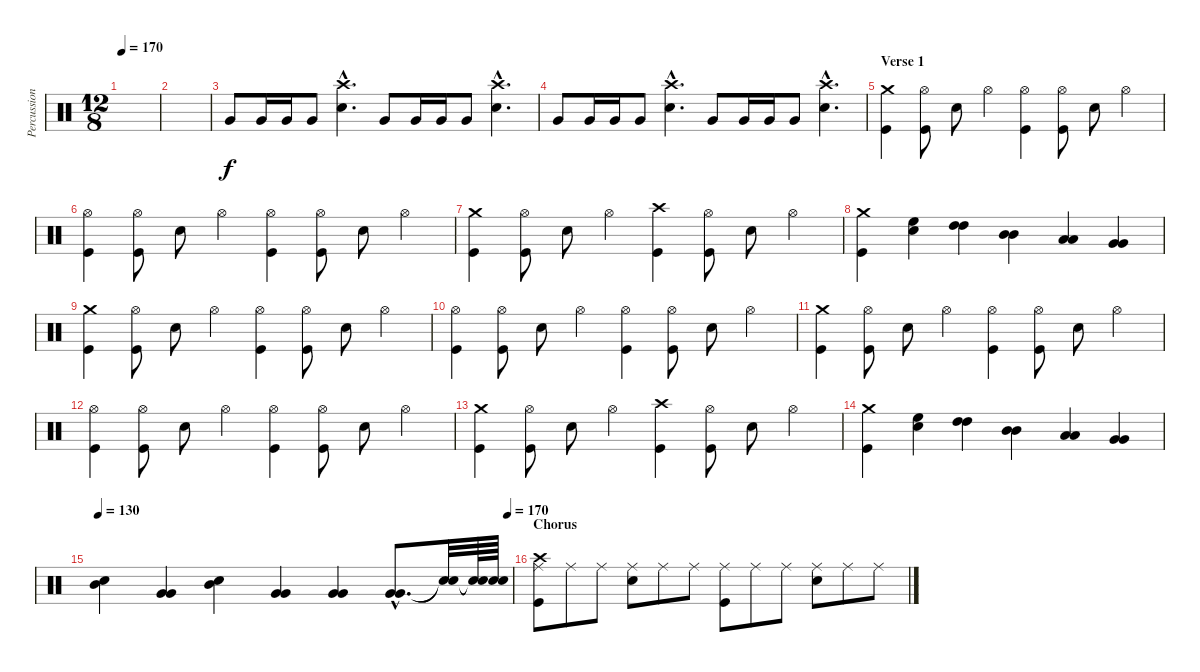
\track ("Percussion" "Percussion") {instrument percussion}
\staff {score}
\articulation defaults
\ts (12 8)
\tempo 170
\clef neutral
\ks c
|
|
"Very Low Tom (hit)".8 "Very Low Tom (hit)".16 "Very Low Tom (hit)".16 "Very Low Tom (hit)".8 ("Crash high (hit)"{hac} "Snare (hit) 2"{hac}).4{d} "Very Low Tom (hit)".8 "Very Low Tom (hit)".16 "Very Low Tom (hit)".16 "Very Low Tom (hit)".8 ("Crash high (hit)"{hac} "Snare (hit) 2"{hac}).4{d} |
"Very Low Tom (hit)".8 "Very Low Tom (hit)".16 "Very Low Tom (hit)".16 "Very Low Tom (hit)".8 ("Crash high (hit)"{hac} "Snare (hit) 2"{hac}).4{d} "Very Low Tom (hit)".8 "Very Low Tom (hit)".16 "Very Low Tom (hit)".16 "Very Low Tom (hit)".8 ("Crash high (hit)"{hac} "Snare (hit) 2"{hac}).4{d} |
\section ("" "Verse 1")
("Crash medium (hit)" "Kick (hit)").4 ("Hi-Hat (open)" "Kick (hit)").8 "Snare (hit) 2".8 "Hi-Hat (open)".4 ("Hi-Hat (open)" "Kick (hit)").4 ("Hi-Hat (open)" "Kick (hit)").8 "Snare (hit) 2".8 "Hi-Hat (open)".4 |
("Hi-Hat (open)" "Kick (hit)").4 ("Hi-Hat (open)" "Kick (hit)").8 "Snare (hit) 2".8 "Hi-Hat (open)".4 ("Hi-Hat (open)" "Kick (hit)").4 ("Hi-Hat (open)" "Kick (hit)").8 "Snare (hit) 2".8 "Hi-Hat (open)".4 |
("Crash medium (hit)" "Kick (hit)").4 ("Hi-Hat (open)" "Kick (hit)").8 "Snare (hit) 2".8 "Hi-Hat (open)".4 ("Crash high (hit)" "Kick (hit)").4 ("Hi-Hat (open)" "Kick (hit)").8 "Snare (hit) 2".8 "Hi-Hat (open)".4 |
("Crash medium (hit)" "Kick (hit)").4 ("Snare (hit) 2" "High Floor Tom (hit)").4 ("High Tom (hit)" "High Tom (hit)").4 ("Mid Tom (hit)" "Mid Tom (hit)").4 ("Low Tom (hit)" "Low Tom (hit)").4 ("Very Low Tom (hit)" "Very Low Tom (hit)").4 |
("Crash medium (hit)" "Kick (hit)").4 ("Hi-Hat (open)" "Kick (hit)").8 "Snare (hit) 2".8 "Hi-Hat (open)".4 ("Hi-Hat (open)" "Kick (hit)").4 ("Hi-Hat (open)" "Kick (hit)").8 "Snare (hit) 2".8 "Hi-Hat (open)".4 |
("Hi-Hat (open)" "Kick (hit)").4 ("Hi-Hat (open)" "Kick (hit)").8 "Snare (hit) 2".8 "Hi-Hat (open)".4 ("Hi-Hat (open)" "Kick (hit)").4 ("Hi-Hat (open)" "Kick (hit)").8 "Snare (hit) 2".8 "Hi-Hat (open)".4 |
("Crash medium (hit)" "Kick (hit)").4 ("Hi-Hat (open)" "Kick (hit)").8 "Snare (hit) 2".8 "Hi-Hat (open)".4 ("Hi-Hat (open)" "Kick (hit)").4 ("Hi-Hat (open)" "Kick (hit)").8 "Snare (hit) 2".8 "Hi-Hat (open)".4 |
("Hi-Hat (open)" "Kick (hit)").4 ("Hi-Hat (open)" "Kick (hit)").8 "Snare (hit) 2".8 "Hi-Hat (open)".4 ("Hi-Hat (open)" "Kick (hit)").4 ("Hi-Hat (open)" "Kick (hit)").8 "Snare (hit) 2".8 "Hi-Hat (open)".4 |
("Crash medium (hit)" "Kick (hit)").4 ("Hi-Hat (open)" "Kick (hit)").8 "Snare (hit) 2".8 "Hi-Hat (open)".4 ("Crash high (hit)" "Kick (hit)").4 ("Hi-Hat (open)" "Kick (hit)").8 "Snare (hit) 2".8 "Hi-Hat (open)".4 |
("Crash medium (hit)" "Kick (hit)").4 ("Snare (hit) 2" "High Floor Tom (hit)").4 ("High Tom (hit)" "High Tom (hit)").4 ("Mid Tom (hit)" "Mid Tom (hit)").4 ("Low Tom (hit)" "Low Tom (hit)").4 ("Very Low Tom (hit)" "Very Low Tom (hit)").4 |
\tempo 130
\tempo (170 0.9895833333333334)
("Snare (hit) 2" "Mid Tom (hit)").4 ("Very Low Tom (hit)" "Very Low Tom (hit)").4 ("Snare (hit) 2" "Mid Tom (hit)").4 ("Very Low Tom (hit)" "Very Low Tom (hit)").4 ("Very Low Tom (hit)" "Very Low Tom (hit)").4 ("Very Low Tom (hit)"{hac} "Very Low Tom (hit)"{hac}).8{d} ("Snare (hit)"{t} "Snare (hit)"{t}).32 ("Snare (hit)"{t} "Snare (hit)"{t}).64 ("Snare (hit)"{t} "Snare (hit)"{t}).64 |
\section ("" "Chorus")
("Crash high (hit)" "Ride (middle)" "Kick (hit)").8 "Ride (middle)".8 "Ride (middle)".8 ("Ride (middle)" "Snare (hit) 2").8 "Ride (middle)".8 "Ride (middle)".8 ("Ride (middle)" "Kick (hit)").8 "Ride (middle)".8 "Ride (middle)".8 ("Ride (middle)" "Snare (hit) 2").8 "Ride (middle)".8 "Ride (middle)".8
